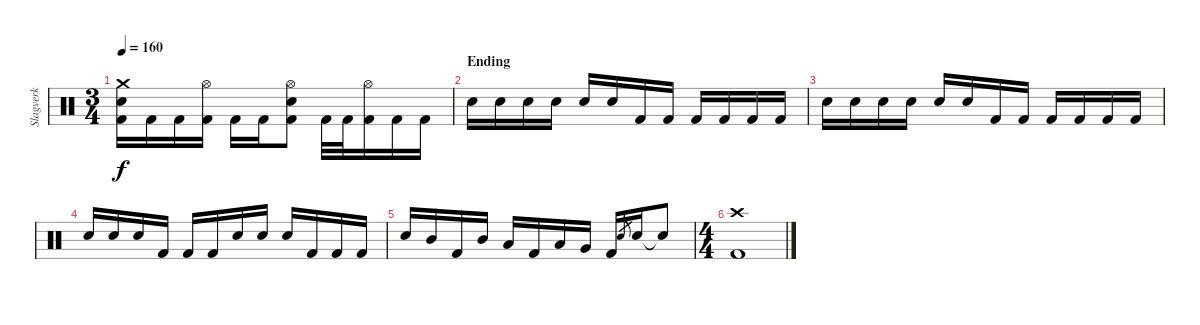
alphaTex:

\track ("Slagverk" "Slagverk") {instrument percussion}
\staff {score}
\articulation defaults
\ts (3 4)
\tempo 160
\clef neutral
\ks c
("Crash medium (hit)" "Snare (hit) 2" "Kick (hit) 2").16{dy f} "Kick (hit) 2".16 "Kick (hit) 2".16 ("Hi-Hat (open)" "Kick (hit) 2").16 "Kick (hit) 2".16 "Kick (hit) 2".16 ("Hi-Hat (open)" "Snare (hit) 2" "Kick (hit) 2").8 "Kick (hit) 2".32 "Kick (hit) 2".32 ("Hi-Hat (open)" "Kick (hit) 2").16 "Kick (hit) 2".16 "Kick (hit) 2".16 |
\section ("" "Ending")
"Snare (hit) 2".16 "Snare (hit) 2".16 "Snare (hit) 2".16 "Snare (hit) 2".16 "Snare (hit) 2".16 "Snare (hit) 2".16 "Kick (hit) 2".16 "Kick (hit) 2".16 "Kick (hit) 2".16 "Kick (hit) 2".16 "Kick (hit) 2".16 "Kick (hit) 2".16 |
"Snare (hit) 2".16 "Snare (hit) 2".16 "Snare (hit) 2".16 "Snare (hit) 2".16 "Snare (hit) 2".16 "Snare (hit) 2".16 "Kick (hit) 2".16 "Kick (hit) 2".16 "Kick (hit) 2".16 "Kick (hit) 2".16 "Kick (hit) 2".16 "Kick (hit) 2".16 |
"Snare (hit) 2".16 "Snare (hit) 2".16 "Snare (hit) 2".16 "Kick (hit) 2".16 "Kick (hit) 2".16 "Kick (hit) 2".16 "Snare (hit) 2".16 "Snare (hit) 2".16 "Snare (hit) 2".16 "Kick (hit) 2".16 "Kick (hit) 2".16 "Kick (hit) 2".16 |
"Snare (hit) 2".16 "Mid Tom (hit)".16 "Kick (hit) 2".16 "Mid Tom (hit)".16 "Low Tom (hit)".16 "Kick (hit) 2".16 "Low Tom (hit)".16 "Very Low Tom (hit)".16 "Kick (hit) 2".16 "Snare (hit) 2".8{gr} "Snare (hit) 2".16 "Snare (hit)"{t}.8 |
\ts (4 4)
("Crash high (hit)" "Kick (hit) 2").1
